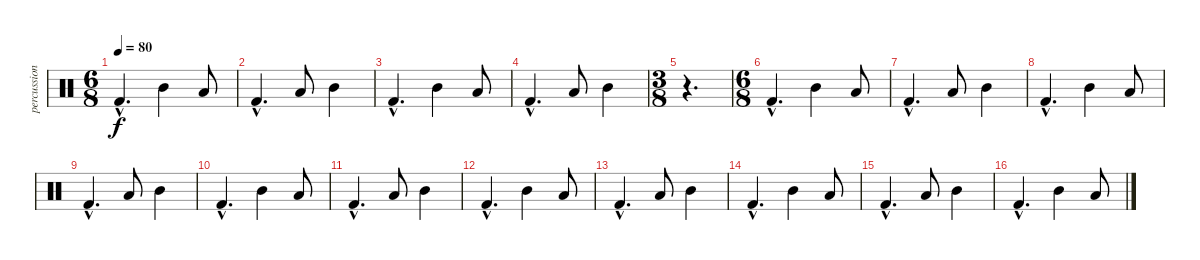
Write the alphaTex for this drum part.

\track ("percussions" "percussion") {instrument percussion}
\staff {score}
\articulation defaults
\ts (6 8)
\tempo 80
\clef neutral
\ks c "Kick (hit) 2"{hac}.4{d dy f} "Mid Tom (hit)".4 "Low Tom (hit)".8
|
"Kick (hit) 2"{hac}.4{d} "Low Tom (hit)".8 "Mid Tom (hit)".4 |
"Kick (hit) 2"{hac}.4{d} "Mid Tom (hit)".4 "Low Tom (hit)".8 |
"Kick (hit) 2"{hac}.4{d} "Low Tom (hit)".8 "Mid Tom (hit)".4 |
\ts (3 8)
r.4{d} |
\ts (6 8)
"Kick (hit) 2"{hac}.4{d} "Mid Tom (hit)".4 "Low Tom (hit)".8 |
"Kick (hit) 2"{hac}.4{d} "Low Tom (hit)".8 "Mid Tom (hit)".4 |
"Kick (hit) 2"{hac}.4{d} "Mid Tom (hit)".4 "Low Tom (hit)".8 |
"Kick (hit) 2"{hac}.4{d} "Low Tom (hit)".8 "Mid Tom (hit)".4 |
"Kick (hit) 2"{hac}.4{d} "Mid Tom (hit)".4 "Low Tom (hit)".8 |
"Kick (hit) 2"{hac}.4{d} "Low Tom (hit)".8 "Mid Tom (hit)".4 |
"Kick (hit) 2"{hac}.4{d} "Mid Tom (hit)".4 "Low Tom (hit)".8 |
"Kick (hit) 2"{hac}.4{d} "Low Tom (hit)".8 "Mid Tom (hit)".4 |
"Kick (hit) 2"{hac}.4{d} "Mid Tom (hit)".4 "Low Tom (hit)".8 |
"Kick (hit) 2"{hac}.4{d} "Low Tom (hit)".8 "Mid Tom (hit)".4 |
"Kick (hit) 2"{hac}.4{d} "Mid Tom (hit)".4 "Low Tom (hit)".8
